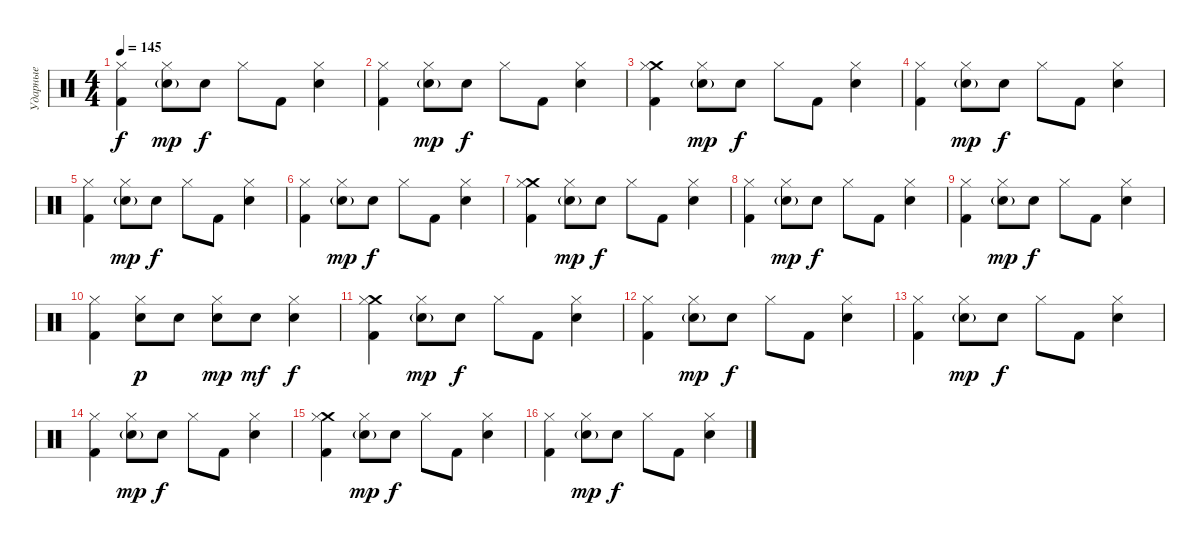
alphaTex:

\track ("Ударные" "Ударные") {instrument percussion}
\staff {score}
\articulation defaults
\ts (4 4)
\tempo 145
\clef neutral
\ks c
("Kick (hit) 2" "Hi-Hat (closed)").4{dy f} ("Electric Snare (hit)"{g} "Hi-Hat (closed)").8{dy mp} "Electric Snare (hit)".8{dy f} "Hi-Hat (closed)".8 "Kick (hit) 2".8 ("Electric Snare (hit)" "Hi-Hat (closed)").4 |
("Kick (hit) 2" "Hi-Hat (closed)").4 ("Electric Snare (hit)"{g} "Hi-Hat (closed)").8{dy mp} "Electric Snare (hit)".8{dy f} "Hi-Hat (closed)".8 "Kick (hit) 2".8 ("Electric Snare (hit)" "Hi-Hat (closed)").4 |
("Crash medium (hit)" "Kick (hit) 2" "Hi-Hat (closed)").4 ("Electric Snare (hit)"{g} "Hi-Hat (closed)").8{dy mp} "Electric Snare (hit)".8{dy f} "Hi-Hat (closed)".8 "Kick (hit) 2".8 ("Electric Snare (hit)" "Hi-Hat (closed)").4 |
("Kick (hit) 2" "Hi-Hat (closed)").4 ("Electric Snare (hit)"{g} "Hi-Hat (closed)").8{dy mp} "Electric Snare (hit)".8{dy f} "Hi-Hat (closed)".8 "Kick (hit) 2".8 ("Electric Snare (hit)" "Hi-Hat (closed)").4 |
("Kick (hit) 2" "Hi-Hat (closed)").4 ("Electric Snare (hit)"{g} "Hi-Hat (closed)").8{dy mp} "Electric Snare (hit)".8{dy f} "Hi-Hat (closed)".8 "Kick (hit) 2".8 ("Electric Snare (hit)" "Hi-Hat (closed)").4 |
("Kick (hit) 2" "Hi-Hat (closed)").4 ("Electric Snare (hit)"{g} "Hi-Hat (closed)").8{dy mp} "Electric Snare (hit)".8{dy f} "Hi-Hat (closed)".8 "Kick (hit) 2".8 ("Electric Snare (hit)" "Hi-Hat (closed)").4 |
("Crash medium (hit)" "Kick (hit) 2" "Hi-Hat (closed)").4 ("Electric Snare (hit)"{g} "Hi-Hat (closed)").8{dy mp} "Electric Snare (hit)".8{dy f} "Hi-Hat (closed)".8 "Kick (hit) 2".8 ("Electric Snare (hit)" "Hi-Hat (closed)").4 |
("Kick (hit) 2" "Hi-Hat (closed)").4 ("Electric Snare (hit)"{g} "Hi-Hat (closed)").8{dy mp} "Electric Snare (hit)".8{dy f} "Hi-Hat (closed)".8 "Kick (hit) 2".8 ("Electric Snare (hit)" "Hi-Hat (closed)").4 |
("Kick (hit) 2" "Hi-Hat (closed)").4 ("Electric Snare (hit)"{g} "Hi-Hat (closed)").8{dy mp} "Electric Snare (hit)".8{dy f} "Hi-Hat (closed)".8 "Kick (hit) 2".8 ("Electric Snare (hit)" "Hi-Hat (closed)").4 |
("Kick (hit) 2" "Hi-Hat (closed)").4 ("Electric Snare (hit)" "Hi-Hat (closed)").8{dy p} "Electric Snare (hit)".8 ("Electric Snare (hit)" "Hi-Hat (closed)").8{dy mp} "Electric Snare (hit)".8{dy mf} ("Electric Snare (hit)" "Hi-Hat (closed)").4{dy f} |
("Crash medium (hit)" "Kick (hit) 2" "Hi-Hat (closed)").4 ("Electric Snare (hit)"{g} "Hi-Hat (closed)").8{dy mp} "Electric Snare (hit)".8{dy f} "Hi-Hat (closed)".8 "Kick (hit) 2".8 ("Electric Snare (hit)" "Hi-Hat (closed)").4 |
("Kick (hit) 2" "Hi-Hat (closed)").4 ("Electric Snare (hit)"{g} "Hi-Hat (closed)").8{dy mp} "Electric Snare (hit)".8{dy f} "Hi-Hat (closed)".8 "Kick (hit) 2".8 ("Electric Snare (hit)" "Hi-Hat (closed)").4 |
("Kick (hit) 2" "Hi-Hat (closed)").4 ("Electric Snare (hit)"{g} "Hi-Hat (closed)").8{dy mp} "Electric Snare (hit)".8{dy f} "Hi-Hat (closed)".8 "Kick (hit) 2".8 ("Electric Snare (hit)" "Hi-Hat (closed)").4 |
("Kick (hit) 2" "Hi-Hat (closed)").4 ("Electric Snare (hit)"{g} "Hi-Hat (closed)").8{dy mp} "Electric Snare (hit)".8{dy f} "Hi-Hat (closed)".8 "Kick (hit) 2".8 ("Electric Snare (hit)" "Hi-Hat (closed)").4 |
("Crash medium (hit)" "Kick (hit) 2" "Hi-Hat (closed)").4 ("Electric Snare (hit)"{g} "Hi-Hat (closed)").8{dy mp} "Electric Snare (hit)".8{dy f} "Hi-Hat (closed)".8 "Kick (hit) 2".8 ("Electric Snare (hit)" "Hi-Hat (closed)").4 |
("Kick (hit) 2" "Hi-Hat (closed)").4 ("Electric Snare (hit)"{g} "Hi-Hat (closed)").8{dy mp} "Electric Snare (hit)".8{dy f} "Hi-Hat (closed)".8 "Kick (hit) 2".8 ("Electric Snare (hit)" "Hi-Hat (closed)").4
